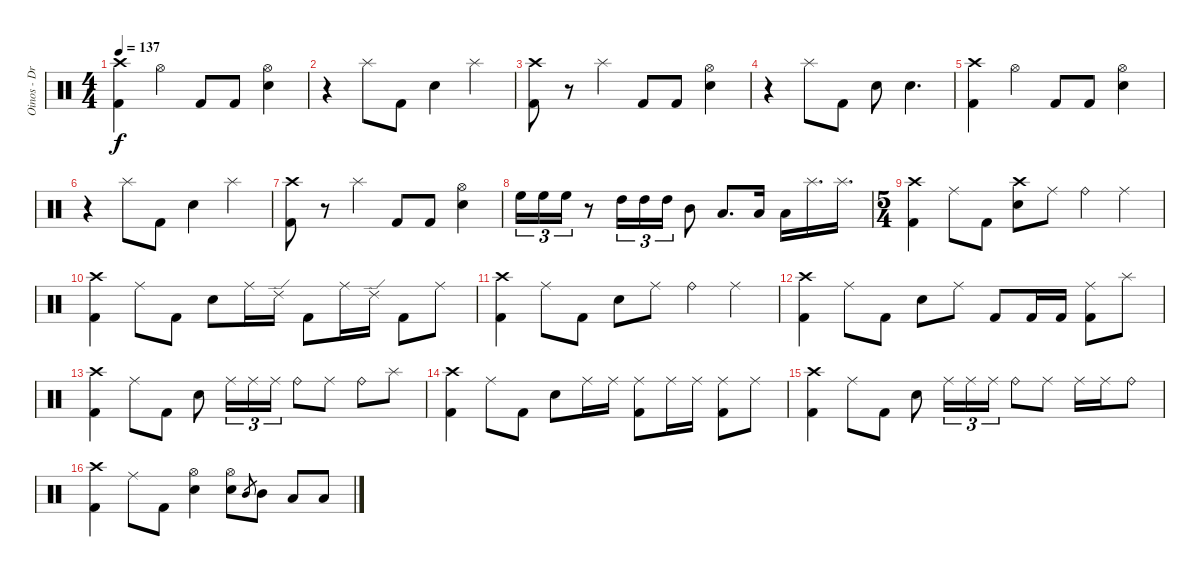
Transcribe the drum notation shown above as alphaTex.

\track ("Oinos - Drums" "Oinos - Dr") {instrument percussion}
\staff {score}
\articulation defaults
\ts (4 4)
\tempo 137
\clef neutral
\ks c
("Crash high (hit)" "Kick (hit) 2").4{dy f} "Hi-Hat (open)".4 "Kick (hit) 2".8 "Kick (hit) 2".8 ("Hi-Hat (open)" "Electric Snare (hit)").4 |
r.4 "Splash (hit)".8 "Kick (hit) 2".8 "Electric Snare (hit)".4 "Splash (hit)".4 |
("Crash high (hit)" "Kick (hit) 2").8 r.8{volume 0} "Splash (hit)".4{volume 12} "Kick (hit) 2".8 "Kick (hit) 2".8 ("Hi-Hat (open)" "Electric Snare (hit)").4 |
r.4 "Splash (hit)".8 "Kick (hit) 2".8 "Electric Snare (hit)".8 "Electric Snare (hit)".4{d} |
("Crash high (hit)" "Kick (hit) 2").4 "Hi-Hat (open)".4 "Kick (hit) 2".8 "Kick (hit) 2".8 ("Hi-Hat (open)" "Electric Snare (hit)").4 |
r.4 "Splash (hit)".8 "Kick (hit) 2".8 "Electric Snare (hit)".4 "Splash (hit)".4 |
("Crash high (hit)" "Kick (hit) 2").8 r.8{volume 0} "Splash (hit)".4{volume 12} "Kick (hit) 2".8 "Kick (hit) 2".8 ("Hi-Hat (open)" "Electric Snare (hit)").4 |
"High Floor Tom (hit)".16{tu (3 2)} "High Floor Tom (hit)".16{tu (3 2)} "High Floor Tom (hit)".16{tu (3 2)} r.8 "High Tom (hit)".16{tu (3 2)} "High Tom (hit)".16{tu (3 2)} "High Tom (hit)".16{tu (3 2)} "Mid Tom (hit)".8 "Low Tom (hit)".8{d} "Low Tom (hit)".16 "Low Tom (hit)".16 "Splash (hit)".16{d} "Splash (hit)".16{d} |
\ts (5 4)
("Crash high (hit)" "Kick (hit) 2").4 "Ride (middle)".8 "Kick (hit) 2".8 ("Crash high (hit)" "Electric Snare (hit)").8 "Ride (middle)".8 "Ride (bell)".4 "Ride (middle)".4 |
("Crash high (hit)" "Kick (hit) 2").4 "Ride (middle)".8 "Kick (hit) 2".8 "Electric Snare (hit)".8 "Ride (middle)".16 "Ride (edge) 2".16 "Kick (hit) 2".8 "Ride (middle)".16 "Ride (edge) 2".16 "Kick (hit) 2".8 "Ride (middle)".8 |
("Crash high (hit)" "Kick (hit) 2").4 "Ride (middle)".8 "Kick (hit) 2".8 "Electric Snare (hit)".8 "Ride (middle)".8 "Ride (bell)".4 "Ride (middle)".4 |
("Crash high (hit)" "Kick (hit) 2").4 "Ride (middle)".8 "Kick (hit) 2".8 "Electric Snare (hit)".8 "Ride (middle)".8 "Kick (hit) 2".8 "Kick (hit) 2".16 "Kick (hit) 2".16 ("Ride (middle)" "Kick (hit) 2").8 "Splash (hit)".8 |
("Crash high (hit)" "Kick (hit) 2").4 "Ride (middle)".8 "Kick (hit) 2".8 "Electric Snare (hit)".8 "Ride (middle)".16{tu (3 2)} "Ride (middle)".16{tu (3 2)} "Ride (middle)".16{tu (3 2)} "Ride (bell)".8 "Ride (middle)".8 "Ride (bell)".8 "Splash (hit)".8 |
("Crash high (hit)" "Kick (hit) 2").4 "Ride (middle)".8 "Kick (hit) 2".8 "Electric Snare (hit)".8 "Ride (middle)".16 "Ride (middle)".16 ("Ride (middle)" "Kick (hit) 2").8 "Ride (middle)".16 "Ride (middle)".16 ("Ride (middle)" "Kick (hit) 2").8 "Ride (middle)".8 |
("Crash high (hit)" "Kick (hit) 2").4 "Ride (middle)".8 "Kick (hit) 2".8 "Electric Snare (hit)".8 "Ride (middle)".16{tu (3 2)} "Ride (middle)".16{tu (3 2)} "Ride (middle)".16{tu (3 2)} "Ride (bell)".8 "Ride (middle)".8 "Ride (middle)".16 "Ride (middle)".16 "Ride (bell)".8 |
("Crash high (hit)" "Kick (hit) 2").4 "Ride (middle)".8 "Kick (hit) 2".8 ("Hi-Hat (open)" "Electric Snare (hit)").4 ("Hi-Hat (open)" "Electric Snare (hit)").8 "Mid Tom (hit)".8{gr} "Mid Tom (hit)".8 "Low Tom (hit)".8 "Low Tom (hit)".8
